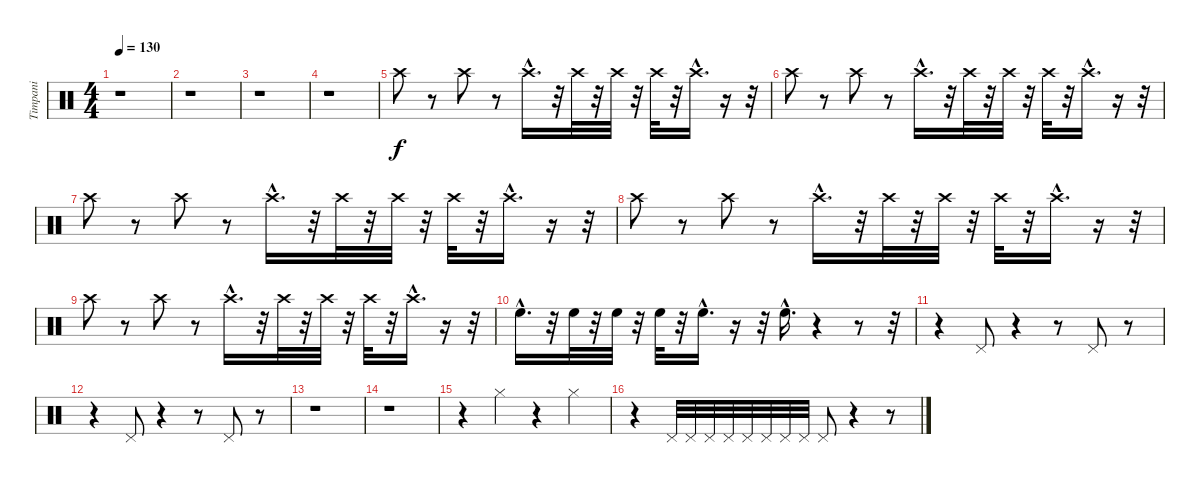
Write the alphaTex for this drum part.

\track ("Timpani" "Timpani") {instrument percussion}
\staff {score}
\articulation defaults
\ts (4 4)
\tempo 130
\clef neutral
\ks c
r.1{dy f} |
r.1 |
r.1 |
r.1 |
"Crash high (hit)".8 r.8 "Crash high (hit)".8 r.8 "Crash high (hit)"{hac}.16{d} r.32 "Crash high (hit)".32 r.32 "Crash high (hit)".32 r.32 "Crash high (hit)".32 r.32 "Crash high (hit)"{hac}.16{d} r.16 r.32 |
"Crash high (hit)".8 r.8 "Crash high (hit)".8 r.8 "Crash high (hit)"{hac}.16{d} r.32 "Crash high (hit)".32 r.32 "Crash high (hit)".32 r.32 "Crash high (hit)".32 r.32 "Crash high (hit)"{hac}.16{d} r.16 r.32 |
"Crash high (hit)".8 r.8 "Crash high (hit)".8 r.8 "Crash high (hit)"{hac}.16{d} r.32 "Crash high (hit)".32 r.32 "Crash high (hit)".32 r.32 "Crash high (hit)".32 r.32 "Crash high (hit)"{hac}.16{d} r.16 r.32 |
"Crash high (hit)".8 r.8 "Crash high (hit)".8 r.8 "Crash high (hit)"{hac}.16{d} r.32 "Crash high (hit)".32 r.32 "Crash high (hit)".32 r.32 "Crash high (hit)".32 r.32 "Crash high (hit)"{hac}.16{d} r.16 r.32 |
"Crash high (hit)".8 r.8 "Crash high (hit)".8 r.8 "Crash high (hit)"{hac}.16{d} r.32 "Crash high (hit)".32 r.32 "Crash high (hit)".32 r.32 "Crash high (hit)".32 r.32 "Crash high (hit)"{hac}.16{d} r.16 r.32 |
"High Floor Tom (hit)"{hac}.16{d} r.32 "High Floor Tom (hit)".32 r.32 "High Floor Tom (hit)".32 r.32 "High Floor Tom (hit)".32 r.32 "High Floor Tom (hit)"{hac}.16{d} r.16 r.32 "High Floor Tom (hit)"{hac}.16{d} r.4 r.8 r.32 |
r.4 "Pedal Hi-Hat (hit)".8 r.4 r.8 "Pedal Hi-Hat (hit)".8 r.8 |
r.4 "Pedal Hi-Hat (hit)".8 r.4 r.8 "Pedal Hi-Hat (hit)".8 r.8 |
r.1 |
r.1 |
r.4 "Hi-Hat (closed)".4 r.4 "Hi-Hat (closed)".4 |
r.4 "Pedal Hi-Hat (hit)".32 "Pedal Hi-Hat (hit)".32 "Pedal Hi-Hat (hit)".32 "Pedal Hi-Hat (hit)".32 "Pedal Hi-Hat (hit)".32 "Pedal Hi-Hat (hit)".32 "Pedal Hi-Hat (hit)".32 "Pedal Hi-Hat (hit)".32 "Pedal Hi-Hat (hit)".8 r.4 r.8
